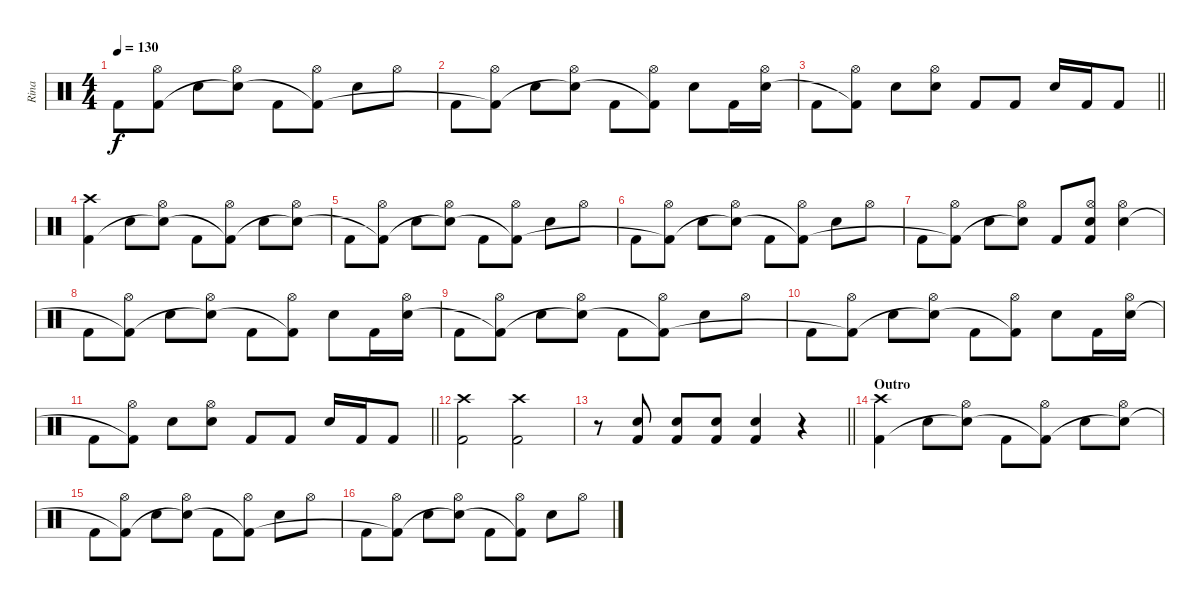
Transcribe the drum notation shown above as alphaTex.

\track ("Rina" "Rina") {instrument percussion}
\staff {score}
\articulation defaults
\ts (4 4)
\tempo 130
\clef neutral
\ks c "Kick (hit) 2".8{dy f}
("Hi-Hat (open)" "Kick (hit) 2"{t}).8 "Snare (hit) 2".8 ("Hi-Hat (open)" "Snare (hit) 2"{t}).8 "Kick (hit) 2".8 ("Hi-Hat (open)" "Kick (hit) 2"{t}).8 "Snare (hit) 2".8 "Hi-Hat (open)".8 |
"Kick (hit) 2".8 ("Hi-Hat (open)" "Kick (hit) 2"{t}).8 "Snare (hit) 2".8 ("Hi-Hat (open)" "Snare (hit) 2"{t}).8 "Kick (hit) 2".8 ("Hi-Hat (open)" "Kick (hit) 2"{t}).8 "Snare (hit) 2".8 "Kick (hit) 2".16 ("Hi-Hat (open)" "Snare (hit) 2").16 |
\barLineRight lightlight "Kick (hit) 2".8
("Hi-Hat (open)" "Kick (hit) 2"{t}).8 "Snare (hit) 2".8 ("Hi-Hat (open)" "Snare (hit) 2").8 "Kick (hit) 2".8 "Kick (hit) 2".8 "Snare (hit) 2".16 "Kick (hit) 2".16 "Kick (hit) 2".8 |
("Crash high (hit)" "Kick (hit) 2").4 "Snare (hit) 2".8 ("Hi-Hat (open)" "Snare (hit) 2"{t}).8 "Kick (hit) 2".8 ("Hi-Hat (open)" "Kick (hit) 2"{t}).8 "Snare (hit) 2".8 ("Hi-Hat (open)" "Snare (hit) 2"{t}).8 |
"Kick (hit) 2".8 ("Hi-Hat (open)" "Kick (hit) 2"{t}).8 "Snare (hit) 2".8 ("Hi-Hat (open)" "Snare (hit) 2"{t}).8 "Kick (hit) 2".8 ("Hi-Hat (open)" "Kick (hit) 2"{t}).8 "Snare (hit) 2".8 "Hi-Hat (open)".8 |
"Kick (hit) 2".8 ("Hi-Hat (open)" "Kick (hit) 2"{t}).8 "Snare (hit) 2".8 ("Hi-Hat (open)" "Snare (hit) 2"{t}).8 "Kick (hit) 2".8 ("Hi-Hat (open)" "Kick (hit) 2"{t}).8 "Snare (hit) 2".8 "Hi-Hat (open)".8 |
"Kick (hit) 2".8 ("Hi-Hat (open)" "Kick (hit) 2"{t}).8 "Snare (hit) 2".8 ("Hi-Hat (open)" "Snare (hit) 2"{t}).8 "Kick (hit) 2".8 ("Hi-Hat (open)" "Snare (hit) 2" "Kick (hit) 2").8 ("Hi-Hat (open)" "Snare (hit) 2").4 |
"Kick (hit) 2".8 ("Hi-Hat (open)" "Kick (hit) 2"{t}).8 "Snare (hit) 2".8 ("Hi-Hat (open)" "Snare (hit) 2"{t}).8 "Kick (hit) 2".8 ("Hi-Hat (open)" "Kick (hit) 2"{t}).8 "Snare (hit) 2".8 "Kick (hit) 2".16 ("Hi-Hat (open)" "Snare (hit) 2").16 |
"Kick (hit) 2".8 ("Hi-Hat (open)" "Kick (hit) 2"{t}).8 "Snare (hit) 2".8 ("Hi-Hat (open)" "Snare (hit) 2"{t}).8 "Kick (hit) 2".8 ("Hi-Hat (open)" "Kick (hit) 2"{t}).8 "Snare (hit) 2".8 "Hi-Hat (open)".8 |
"Kick (hit) 2".8 ("Hi-Hat (open)" "Kick (hit) 2"{t}).8 "Snare (hit) 2".8 ("Hi-Hat (open)" "Snare (hit) 2"{t}).8 "Kick (hit) 2".8 ("Hi-Hat (open)" "Kick (hit) 2"{t}).8 "Snare (hit) 2".8 "Kick (hit) 2".16 ("Hi-Hat (open)" "Snare (hit) 2").16 |
\barLineRight lightlight "Kick (hit) 2".8
("Hi-Hat (open)" "Kick (hit) 2"{t}).8 "Snare (hit) 2".8 ("Hi-Hat (open)" "Snare (hit) 2").8 "Kick (hit) 2".8 "Kick (hit) 2".8 "Snare (hit) 2".16 "Kick (hit) 2".16 "Kick (hit) 2".8 |
("Crash high (hit)" "Kick (hit) 2").2 ("Crash high (hit)" "Kick (hit) 2").2 |
\barLineRight lightlight
r.8 ("Snare (hit) 2" "Kick (hit) 2").8 ("Snare (hit) 2" "Kick (hit) 2").8 ("Snare (hit) 2" "Kick (hit) 2").8 ("Snare (hit) 2" "Kick (hit) 2").4 r.4 |
\section ("" "Outro")
("Crash high (hit)" "Kick (hit) 2").4 "Snare (hit) 2".8 ("Hi-Hat (open)" "Snare (hit) 2"{t}).8 "Kick (hit) 2".8 ("Hi-Hat (open)" "Kick (hit) 2"{t}).8 "Snare (hit) 2".8 ("Hi-Hat (open)" "Snare (hit) 2"{t}).8 |
"Kick (hit) 2".8 ("Hi-Hat (open)" "Kick (hit) 2"{t}).8 "Snare (hit) 2".8 ("Hi-Hat (open)" "Snare (hit) 2"{t}).8 "Kick (hit) 2".8 ("Hi-Hat (open)" "Kick (hit) 2"{t}).8 "Snare (hit) 2".8 "Hi-Hat (open)".8 |
"Kick (hit) 2".8 ("Hi-Hat (open)" "Kick (hit) 2"{t}).8 "Snare (hit) 2".8 ("Hi-Hat (open)" "Snare (hit) 2"{t}).8 "Kick (hit) 2".8 ("Hi-Hat (open)" "Kick (hit) 2"{t}).8 "Snare (hit) 2".8 "Hi-Hat (open)".8
